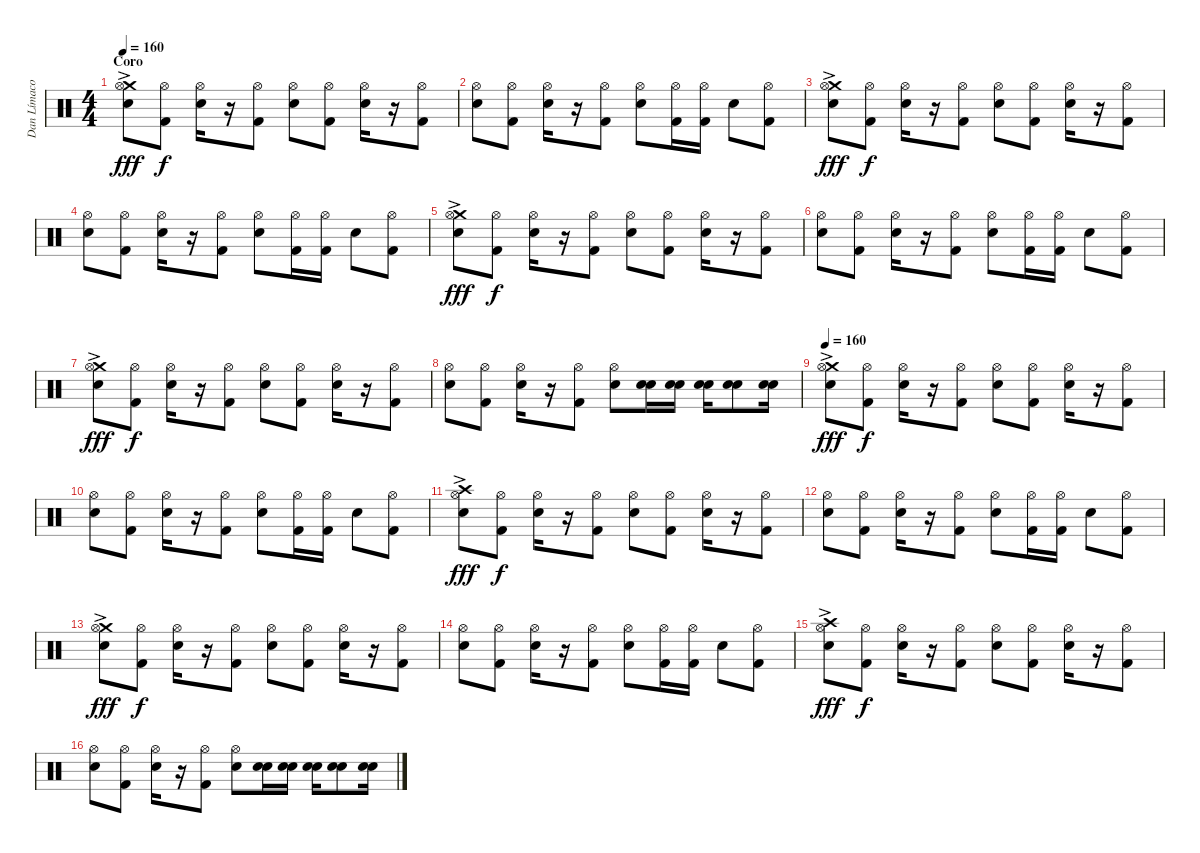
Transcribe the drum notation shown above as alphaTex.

\track ("Dan Límaco" "Dan Límaco") {instrument percussion}
\staff {score}
\articulation defaults
\ts (4 4)
\section ("" "Coro")
\tempo 160
\clef neutral
\ks c
("Crash medium (hit)"{ac} "Hi-Hat (open)" "Snare (hit) 2").8{dy fff volume 12} ("Hi-Hat (open)" "Kick (hit) 2").8{dy f} ("Hi-Hat (open)" "Snare (hit) 2").16 r.16 ("Hi-Hat (open)" "Kick (hit) 2").8 ("Hi-Hat (open)" "Snare (hit) 2").8 ("Hi-Hat (open)" "Kick (hit) 2").8 ("Hi-Hat (open)" "Snare (hit) 2").16 r.16 ("Hi-Hat (open)" "Kick (hit) 2").8 |
("Hi-Hat (open)" "Snare (hit) 2").8{volume 12} ("Hi-Hat (open)" "Kick (hit) 2").8 ("Hi-Hat (open)" "Snare (hit) 2").16 r.16 ("Hi-Hat (open)" "Kick (hit) 2").8 ("Hi-Hat (open)" "Snare (hit) 2").8 ("Hi-Hat (open)" "Kick (hit) 2").16 ("Hi-Hat (open)" "Kick (hit) 2").16 "Snare (hit) 2".8 ("Hi-Hat (open)" "Kick (hit) 2").8 |
("Crash medium (hit)"{ac} "Hi-Hat (open)" "Snare (hit) 2").8{dy fff volume 12} ("Hi-Hat (open)" "Kick (hit) 2").8{dy f} ("Hi-Hat (open)" "Snare (hit) 2").16 r.16 ("Hi-Hat (open)" "Kick (hit) 2").8 ("Hi-Hat (open)" "Snare (hit) 2").8 ("Hi-Hat (open)" "Kick (hit) 2").8 ("Hi-Hat (open)" "Snare (hit) 2").16 r.16 ("Hi-Hat (open)" "Kick (hit) 2").8 |
("Hi-Hat (open)" "Snare (hit) 2").8{volume 12} ("Hi-Hat (open)" "Kick (hit) 2").8 ("Hi-Hat (open)" "Snare (hit) 2").16 r.16 ("Hi-Hat (open)" "Kick (hit) 2").8 ("Hi-Hat (open)" "Snare (hit) 2").8 ("Hi-Hat (open)" "Kick (hit) 2").16 ("Hi-Hat (open)" "Kick (hit) 2").16 "Snare (hit) 2".8 ("Hi-Hat (open)" "Kick (hit) 2").8 |
("Crash medium (hit)"{ac} "Hi-Hat (open)" "Snare (hit) 2").8{dy fff volume 12} ("Hi-Hat (open)" "Kick (hit) 2").8{dy f} ("Hi-Hat (open)" "Snare (hit) 2").16 r.16 ("Hi-Hat (open)" "Kick (hit) 2").8 ("Hi-Hat (open)" "Snare (hit) 2").8 ("Hi-Hat (open)" "Kick (hit) 2").8 ("Hi-Hat (open)" "Snare (hit) 2").16 r.16 ("Hi-Hat (open)" "Kick (hit) 2").8 |
("Hi-Hat (open)" "Snare (hit) 2").8{volume 12} ("Hi-Hat (open)" "Kick (hit) 2").8 ("Hi-Hat (open)" "Snare (hit) 2").16 r.16 ("Hi-Hat (open)" "Kick (hit) 2").8 ("Hi-Hat (open)" "Snare (hit) 2").8 ("Hi-Hat (open)" "Kick (hit) 2").16 ("Hi-Hat (open)" "Kick (hit) 2").16 "Snare (hit) 2".8 ("Hi-Hat (open)" "Kick (hit) 2").8 |
("Crash medium (hit)"{ac} "Hi-Hat (open)" "Snare (hit) 2").8{dy fff volume 12} ("Hi-Hat (open)" "Kick (hit) 2").8{dy f} ("Hi-Hat (open)" "Snare (hit) 2").16 r.16 ("Hi-Hat (open)" "Kick (hit) 2").8 ("Hi-Hat (open)" "Snare (hit) 2").8 ("Hi-Hat (open)" "Kick (hit) 2").8 ("Hi-Hat (open)" "Snare (hit) 2").16 r.16 ("Hi-Hat (open)" "Kick (hit) 2").8 |
("Hi-Hat (open)" "Snare (hit) 2").8{volume 12} ("Hi-Hat (open)" "Kick (hit) 2").8 ("Hi-Hat (open)" "Snare (hit) 2").16 r.16 ("Hi-Hat (open)" "Kick (hit) 2").8 ("Hi-Hat (open)" "Snare (hit) 2").8 ("Snare (hit) 2" "Snare (hit) 2").16 ("Snare (hit) 2" "Snare (hit) 2").16 ("Snare (hit) 2" "Snare (hit) 2").16 ("Snare (hit) 2" "Snare (hit) 2").8 ("Snare (hit) 2" "Snare (hit) 2").16 |
\tempo 160
("Crash medium (hit)"{ac} "Hi-Hat (open)" "Snare (hit) 2").8{dy fff volume 12} ("Hi-Hat (open)" "Kick (hit) 2").8{dy f} ("Hi-Hat (open)" "Snare (hit) 2").16 r.16 ("Hi-Hat (open)" "Kick (hit) 2").8 ("Hi-Hat (open)" "Snare (hit) 2").8 ("Hi-Hat (open)" "Kick (hit) 2").8 ("Hi-Hat (open)" "Snare (hit) 2").16 r.16 ("Hi-Hat (open)" "Kick (hit) 2").8 |
("Hi-Hat (open)" "Snare (hit) 2").8{volume 12} ("Hi-Hat (open)" "Kick (hit) 2").8 ("Hi-Hat (open)" "Snare (hit) 2").16 r.16 ("Hi-Hat (open)" "Kick (hit) 2").8 ("Hi-Hat (open)" "Snare (hit) 2").8 ("Hi-Hat (open)" "Kick (hit) 2").16 ("Hi-Hat (open)" "Kick (hit) 2").16 "Snare (hit) 2".8 ("Hi-Hat (open)" "Kick (hit) 2").8 |
("Crash high (hit)"{ac} "Hi-Hat (open)" "Snare (hit) 2").8{dy fff volume 12} ("Hi-Hat (open)" "Kick (hit) 2").8{dy f} ("Hi-Hat (open)" "Snare (hit) 2").16 r.16 ("Hi-Hat (open)" "Kick (hit) 2").8 ("Hi-Hat (open)" "Snare (hit) 2").8 ("Hi-Hat (open)" "Kick (hit) 2").8 ("Hi-Hat (open)" "Snare (hit) 2").16 r.16 ("Hi-Hat (open)" "Kick (hit) 2").8 |
("Hi-Hat (open)" "Snare (hit) 2").8{volume 12} ("Hi-Hat (open)" "Kick (hit) 2").8 ("Hi-Hat (open)" "Snare (hit) 2").16 r.16 ("Hi-Hat (open)" "Kick (hit) 2").8 ("Hi-Hat (open)" "Snare (hit) 2").8 ("Hi-Hat (open)" "Kick (hit) 2").16 ("Hi-Hat (open)" "Kick (hit) 2").16 "Snare (hit) 2".8 ("Hi-Hat (open)" "Kick (hit) 2").8 |
("Crash medium (hit)"{ac} "Hi-Hat (open)" "Snare (hit) 2").8{dy fff volume 12} ("Hi-Hat (open)" "Kick (hit) 2").8{dy f} ("Hi-Hat (open)" "Snare (hit) 2").16 r.16 ("Hi-Hat (open)" "Kick (hit) 2").8 ("Hi-Hat (open)" "Snare (hit) 2").8 ("Hi-Hat (open)" "Kick (hit) 2").8 ("Hi-Hat (open)" "Snare (hit) 2").16 r.16 ("Hi-Hat (open)" "Kick (hit) 2").8 |
("Hi-Hat (open)" "Snare (hit) 2").8{volume 12} ("Hi-Hat (open)" "Kick (hit) 2").8 ("Hi-Hat (open)" "Snare (hit) 2").16 r.16 ("Hi-Hat (open)" "Kick (hit) 2").8 ("Hi-Hat (open)" "Snare (hit) 2").8 ("Hi-Hat (open)" "Kick (hit) 2").16 ("Hi-Hat (open)" "Kick (hit) 2").16 "Snare (hit) 2".8 ("Hi-Hat (open)" "Kick (hit) 2").8 |
("Crash high (hit)"{ac} "Hi-Hat (open)" "Snare (hit) 2").8{dy fff volume 12} ("Hi-Hat (open)" "Kick (hit) 2").8{dy f} ("Hi-Hat (open)" "Snare (hit) 2").16 r.16 ("Hi-Hat (open)" "Kick (hit) 2").8 ("Hi-Hat (open)" "Snare (hit) 2").8 ("Hi-Hat (open)" "Kick (hit) 2").8 ("Hi-Hat (open)" "Snare (hit) 2").16 r.16 ("Hi-Hat (open)" "Kick (hit) 2").8 |
("Hi-Hat (open)" "Snare (hit) 2").8 ("Hi-Hat (open)" "Kick (hit) 2").8 ("Hi-Hat (open)" "Snare (hit) 2").16 r.16 ("Hi-Hat (open)" "Kick (hit) 2").8 ("Hi-Hat (open)" "Snare (hit) 2").8 ("Snare (hit) 2" "Snare (hit) 2").16 ("Snare (hit) 2" "Snare (hit) 2").16 ("Snare (hit) 2" "Snare (hit) 2").16 ("Snare (hit) 2" "Snare (hit) 2").8 ("Snare (hit) 2" "Snare (hit) 2").16
